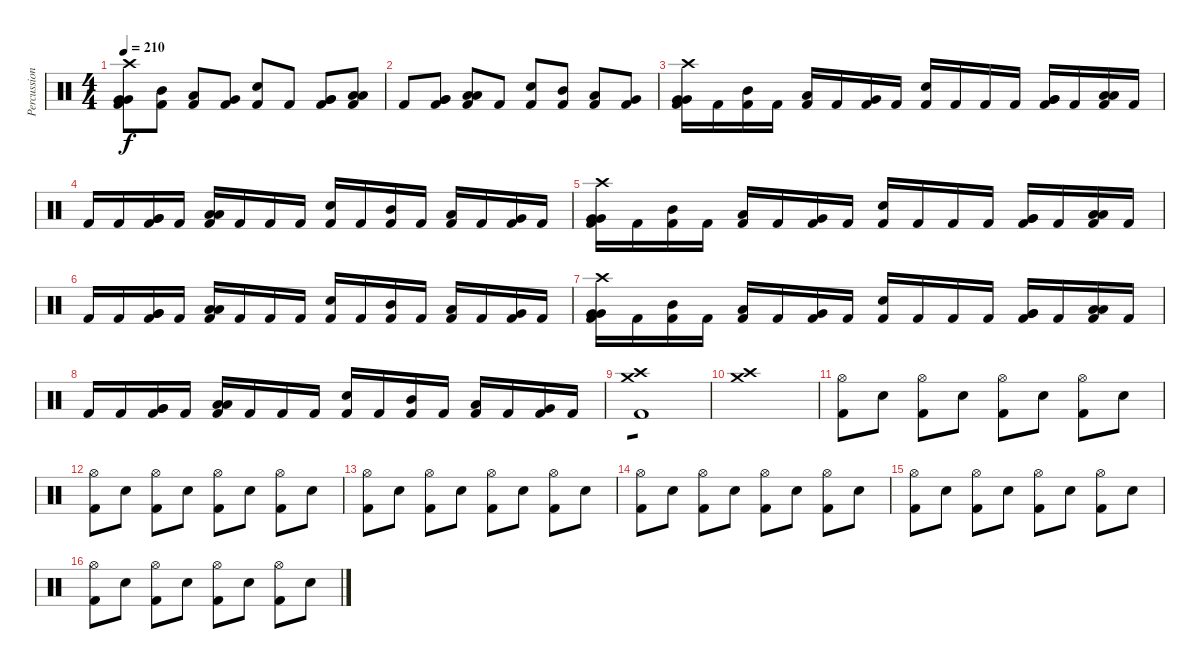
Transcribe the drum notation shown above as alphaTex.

\track ("Percussion" "Percussion") {instrument percussion}
\staff {score}
\articulation defaults
\ts (4 4)
\tempo 210
\clef neutral
\ks c
("Crash high (hit)" "Very Low Tom (hit)" "Very Low Tom (hit)" "Kick (hit) 2").8{dy f} ("Mid Tom (hit)" "Kick (hit) 2").8 ("Low Tom (hit)" "Kick (hit) 2").8 ("Very Low Tom (hit)" "Kick (hit) 2").8 ("Electric Snare (hit)" "Kick (hit) 2").8 "Kick (hit) 2".8 ("Very Low Tom (hit)" "Very Low Tom (hit)" "Kick (hit) 2").8 ("Low Floor Tom (hit)" "Low Floor Tom (hit)" "Kick (hit) 2").8 |
"Kick (hit) 2".8 ("Very Low Tom (hit)" "Very Low Tom (hit)" "Kick (hit) 2").8 ("Low Floor Tom (hit)" "Low Floor Tom (hit)" "Kick (hit) 2").8 "Kick (hit) 2".8 ("Electric Snare (hit)" "Kick (hit) 2").8 ("Mid Tom (hit)" "Kick (hit) 2").8 ("Low Tom (hit)" "Kick (hit) 2").8 ("Very Low Tom (hit)" "Kick (hit) 2").8 |
("Crash high (hit)" "Very Low Tom (hit)" "Very Low Tom (hit)" "Kick (hit) 2").16 "Kick (hit) 2".16 ("Mid Tom (hit)" "Kick (hit) 2").16 "Kick (hit) 2".16 ("Low Tom (hit)" "Kick (hit) 2").16 "Kick (hit) 2".16 ("Very Low Tom (hit)" "Kick (hit) 2").16 "Kick (hit) 2".16 ("Electric Snare (hit)" "Kick (hit) 2").16 "Kick (hit) 2".16 "Kick (hit) 2".16 "Kick (hit) 2".16 ("Very Low Tom (hit)" "Very Low Tom (hit)" "Kick (hit) 2").16 "Kick (hit) 2".16 ("Low Floor Tom (hit)" "Low Floor Tom (hit)" "Kick (hit) 2").16 "Kick (hit) 2".16 |
"Kick (hit) 2".16 "Kick (hit) 2".16 ("Very Low Tom (hit)" "Very Low Tom (hit)" "Kick (hit) 2").16 "Kick (hit) 2".16 ("Low Floor Tom (hit)" "Low Floor Tom (hit)" "Kick (hit) 2").16 "Kick (hit) 2".16 "Kick (hit) 2".16 "Kick (hit) 2".16 ("Electric Snare (hit)" "Kick (hit) 2").16 "Kick (hit) 2".16 ("Mid Tom (hit)" "Kick (hit) 2").16 "Kick (hit) 2".16 ("Low Tom (hit)" "Kick (hit) 2").16 "Kick (hit) 2".16 ("Very Low Tom (hit)" "Kick (hit) 2").16 "Kick (hit) 2".16 |
("Crash high (hit)" "Very Low Tom (hit)" "Very Low Tom (hit)" "Kick (hit) 2").16 "Kick (hit) 2".16 ("Mid Tom (hit)" "Kick (hit) 2").16 "Kick (hit) 2".16 ("Low Tom (hit)" "Kick (hit) 2").16 "Kick (hit) 2".16 ("Very Low Tom (hit)" "Kick (hit) 2").16 "Kick (hit) 2".16 ("Electric Snare (hit)" "Kick (hit) 2").16 "Kick (hit) 2".16 "Kick (hit) 2".16 "Kick (hit) 2".16 ("Very Low Tom (hit)" "Very Low Tom (hit)" "Kick (hit) 2").16 "Kick (hit) 2".16 ("Low Floor Tom (hit)" "Low Floor Tom (hit)" "Kick (hit) 2").16 "Kick (hit) 2".16 |
"Kick (hit) 2".16 "Kick (hit) 2".16 ("Very Low Tom (hit)" "Very Low Tom (hit)" "Kick (hit) 2").16 "Kick (hit) 2".16 ("Low Floor Tom (hit)" "Low Floor Tom (hit)" "Kick (hit) 2").16 "Kick (hit) 2".16 "Kick (hit) 2".16 "Kick (hit) 2".16 ("Electric Snare (hit)" "Kick (hit) 2").16 "Kick (hit) 2".16 ("Mid Tom (hit)" "Kick (hit) 2").16 "Kick (hit) 2".16 ("Low Tom (hit)" "Kick (hit) 2").16 "Kick (hit) 2".16 ("Very Low Tom (hit)" "Kick (hit) 2").16 "Kick (hit) 2".16 |
("Crash high (hit)" "Very Low Tom (hit)" "Very Low Tom (hit)" "Kick (hit) 2").16 "Kick (hit) 2".16 ("Mid Tom (hit)" "Kick (hit) 2").16 "Kick (hit) 2".16 ("Low Tom (hit)" "Kick (hit) 2").16 "Kick (hit) 2".16 ("Very Low Tom (hit)" "Kick (hit) 2").16 "Kick (hit) 2".16 ("Electric Snare (hit)" "Kick (hit) 2").16 "Kick (hit) 2".16 "Kick (hit) 2".16 "Kick (hit) 2".16 ("Very Low Tom (hit)" "Very Low Tom (hit)" "Kick (hit) 2").16 "Kick (hit) 2".16 ("Low Floor Tom (hit)" "Low Floor Tom (hit)" "Kick (hit) 2").16 "Kick (hit) 2".16 |
"Kick (hit) 2".16 "Kick (hit) 2".16 ("Very Low Tom (hit)" "Very Low Tom (hit)" "Kick (hit) 2").16 "Kick (hit) 2".16 ("Low Floor Tom (hit)" "Low Floor Tom (hit)" "Kick (hit) 2").16 "Kick (hit) 2".16 "Kick (hit) 2".16 "Kick (hit) 2".16 ("Electric Snare (hit)" "Kick (hit) 2").16 "Kick (hit) 2".16 ("Mid Tom (hit)" "Kick (hit) 2").16 "Kick (hit) 2".16 ("Low Tom (hit)" "Kick (hit) 2").16 "Kick (hit) 2".16 ("Very Low Tom (hit)" "Kick (hit) 2").16 "Kick (hit) 2".16 |
("Crash high (hit)" "Crash medium (hit)" "Kick (hit) 2").1{tp 1} |
("Crash high (hit)" "Crash medium (hit)").1 |
("Hi-Hat (open)" "Kick (hit) 2").8 "Electric Snare (hit)".8 ("Hi-Hat (open)" "Kick (hit) 2").8 "Electric Snare (hit)".8 ("Hi-Hat (open)" "Kick (hit) 2").8 "Electric Snare (hit)".8 ("Hi-Hat (open)" "Kick (hit) 2").8 "Electric Snare (hit)".8 |
("Hi-Hat (open)" "Kick (hit) 2").8 "Electric Snare (hit)".8 ("Hi-Hat (open)" "Kick (hit) 2").8 "Electric Snare (hit)".8 ("Hi-Hat (open)" "Kick (hit) 2").8 "Electric Snare (hit)".8 ("Hi-Hat (open)" "Kick (hit) 2").8 "Electric Snare (hit)".8 |
("Hi-Hat (open)" "Kick (hit) 2").8 "Electric Snare (hit)".8 ("Hi-Hat (open)" "Kick (hit) 2").8 "Electric Snare (hit)".8 ("Hi-Hat (open)" "Kick (hit) 2").8 "Electric Snare (hit)".8 ("Hi-Hat (open)" "Kick (hit) 2").8 "Electric Snare (hit)".8 |
("Hi-Hat (open)" "Kick (hit) 2").8 "Electric Snare (hit)".8 ("Hi-Hat (open)" "Kick (hit) 2").8 "Electric Snare (hit)".8 ("Hi-Hat (open)" "Kick (hit) 2").8 "Electric Snare (hit)".8 ("Hi-Hat (open)" "Kick (hit) 2").8 "Electric Snare (hit)".8 |
("Hi-Hat (open)" "Kick (hit) 2").8 "Electric Snare (hit)".8 ("Hi-Hat (open)" "Kick (hit) 2").8 "Electric Snare (hit)".8 ("Hi-Hat (open)" "Kick (hit) 2").8 "Electric Snare (hit)".8 ("Hi-Hat (open)" "Kick (hit) 2").8 "Electric Snare (hit)".8 |
("Hi-Hat (open)" "Kick (hit) 2").8 "Electric Snare (hit)".8 ("Hi-Hat (open)" "Kick (hit) 2").8 "Electric Snare (hit)".8 ("Hi-Hat (open)" "Kick (hit) 2").8 "Electric Snare (hit)".8 ("Hi-Hat (open)" "Kick (hit) 2").8 "Electric Snare (hit)".8
